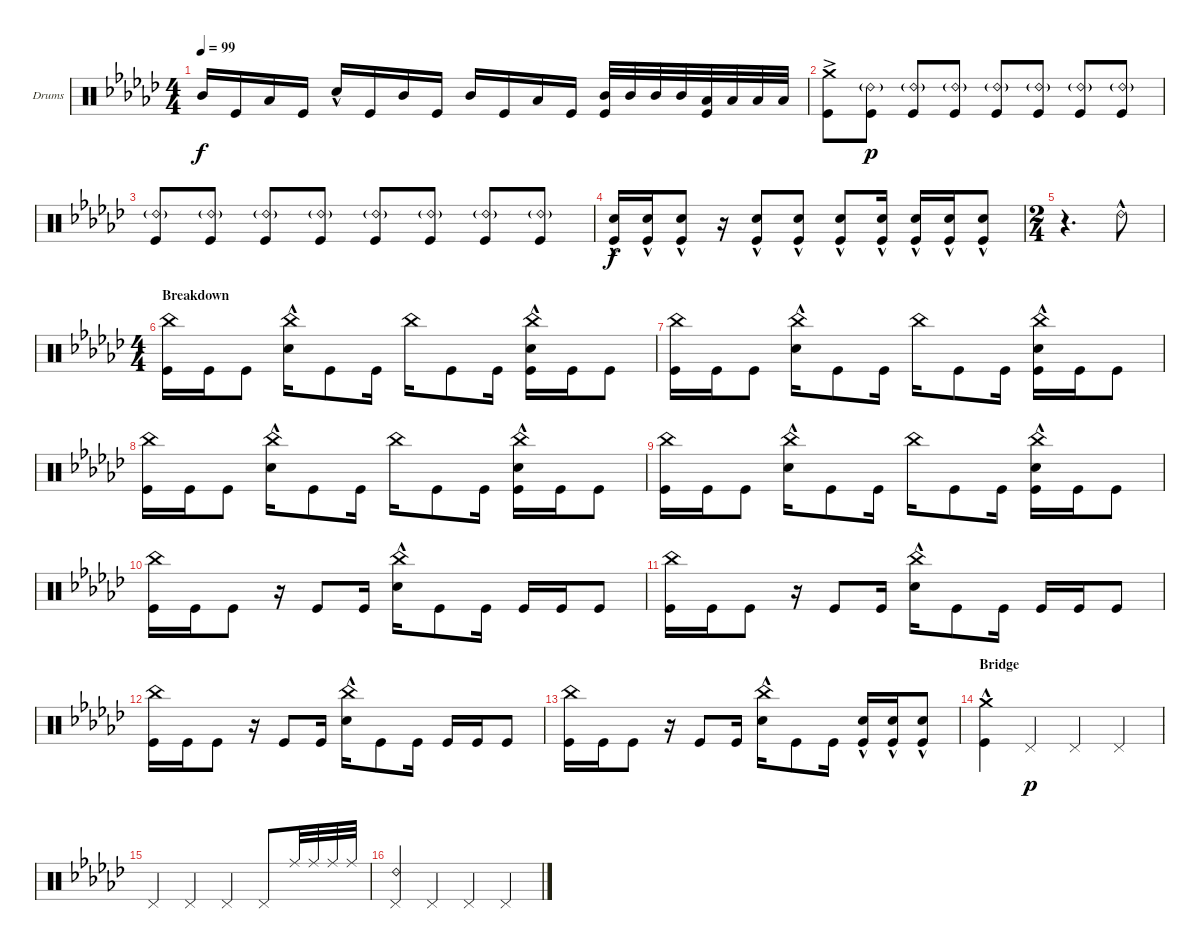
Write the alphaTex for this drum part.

\bracketExtendMode groupsimilarinstruments
\firstSystemTrackNameOrientation horizontal
\otherSystemsTrackNameOrientation horizontal
\track ("Drumkit" "Drums") {instrument percussion}
\staff {score}
\articulation defaults
\ts (4 4)
\tempo 99
\clef neutral
\ks ebminor "Mid Tom (hit)".16{dy f} "Kick (hit)".16 "Low Tom (hit)".16 "Kick (hit)".16 "Snare (hit) 2"{hac}.16 "Kick (hit)".16 "Mid Tom (hit)".16 "Kick (hit)".16 "Mid Tom (hit)".16 "Kick (hit)".16 "Low Tom (hit)".16 "Kick (hit)".16
("Mid Tom (hit)" "Kick (hit)").32 "Mid Tom (hit)".32 "Mid Tom (hit)".32 "Mid Tom (hit)".32 ("Low Tom (hit)" "Kick (hit)").32 "Low Tom (hit)".32 "Low Tom (hit)".32 "Low Tom (hit)".32 |
("Kick (hit)" "Crash medium (hit)"{ac}).8 ("Kick (hit)" "Ride (bell) 2"{g}).8{dy p} ("Kick (hit)" "Ride (bell) 2"{g}).8 ("Kick (hit)" "Ride (bell) 2"{g}).8 ("Kick (hit)" "Ride (bell) 2"{g}).8 ("Kick (hit)" "Ride (bell) 2"{g}).8 ("Kick (hit)" "Ride (bell) 2"{g}).8 ("Kick (hit)" "Ride (bell) 2"{g}).8 |
("Kick (hit)" "Ride (bell) 2"{g}).8 ("Kick (hit)" "Ride (bell) 2"{g}).8 ("Kick (hit)" "Ride (bell) 2"{g}).8 ("Kick (hit)" "Ride (bell) 2"{g}).8 ("Kick (hit)" "Ride (bell) 2"{g}).8 ("Kick (hit)" "Ride (bell) 2"{g}).8 ("Kick (hit)" "Ride (bell) 2"{g}).8 ("Kick (hit)" "Ride (bell) 2"{g}).8 |
("Kick (hit)" "Snare (hit) 2"{hac}).16{dy f} ("Kick (hit)" "Snare (hit) 2"{hac}).16 ("Kick (hit)" "Snare (hit) 2"{hac}).8 r.16 ("Kick (hit)" "Snare (hit) 2"{hac}).8 ("Kick (hit)" "Snare (hit) 2"{hac}).8 ("Kick (hit)" "Snare (hit) 2"{hac}).8 ("Kick (hit)" "Snare (hit) 2"{hac}).16 ("Kick (hit)" "Snare (hit) 2"{hac}).16 ("Kick (hit)" "Snare (hit) 2"{hac}).16 ("Kick (hit)" "Snare (hit) 2"{hac}).8 |
\ts (2 4)
r.4{d} "Ride (bell) 2"{hac}.8 |
\ts (4 4)
\section ("" "Breakdown")
("Kick (hit)" "China (hit)").16 "Kick (hit)".16 "Kick (hit)".8 ("China (hit)" "Snare (hit) 2"{hac}).16 "Kick (hit)".8 "Kick (hit)".16 "China (hit)".16 "Kick (hit)".8 "Kick (hit)".16 ("Kick (hit)" "China (hit)" "Snare (hit) 2"{hac}).16 "Kick (hit)".16 "Kick (hit)".8 |
("Kick (hit)" "China (hit)").16 "Kick (hit)".16 "Kick (hit)".8 ("China (hit)" "Snare (hit) 2"{hac}).16 "Kick (hit)".8 "Kick (hit)".16 "China (hit)".16 "Kick (hit)".8 "Kick (hit)".16 ("Kick (hit)" "China (hit)" "Snare (hit) 2"{hac}).16 "Kick (hit)".16 "Kick (hit)".8 |
("Kick (hit)" "China (hit)").16 "Kick (hit)".16 "Kick (hit)".8 ("China (hit)" "Snare (hit) 2"{hac}).16 "Kick (hit)".8 "Kick (hit)".16 "China (hit)".16 "Kick (hit)".8 "Kick (hit)".16 ("Kick (hit)" "China (hit)" "Snare (hit) 2"{hac}).16 "Kick (hit)".16 "Kick (hit)".8 |
("Kick (hit)" "China (hit)").16 "Kick (hit)".16 "Kick (hit)".8 ("China (hit)" "Snare (hit) 2"{hac}).16 "Kick (hit)".8 "Kick (hit)".16 "China (hit)".16 "Kick (hit)".8 "Kick (hit)".16 ("Kick (hit)" "China (hit)" "Snare (hit) 2"{hac}).16 "Kick (hit)".16 "Kick (hit)".8 |
("Kick (hit)" "China (hit)").16 "Kick (hit)".16 "Kick (hit)".8 r.16 "Kick (hit)".8 "Kick (hit)".16 ("China (hit)" "Snare (hit) 2"{hac}).16 "Kick (hit)".8 "Kick (hit)".16 "Kick (hit)".16 "Kick (hit)".16 "Kick (hit)".8 |
("Kick (hit)" "China (hit)").16 "Kick (hit)".16 "Kick (hit)".8 r.16 "Kick (hit)".8 "Kick (hit)".16 ("China (hit)" "Snare (hit) 2"{hac}).16 "Kick (hit)".8 "Kick (hit)".16 "Kick (hit)".16 "Kick (hit)".16 "Kick (hit)".8 |
("Kick (hit)" "China (hit)").16 "Kick (hit)".16 "Kick (hit)".8 r.16 "Kick (hit)".8 "Kick (hit)".16 ("China (hit)" "Snare (hit) 2"{hac}).16 "Kick (hit)".8 "Kick (hit)".16 "Kick (hit)".16 "Kick (hit)".16 "Kick (hit)".8 |
("Kick (hit)" "China (hit)").16 "Kick (hit)".16 "Kick (hit)".8 r.16 "Kick (hit)".8 "Kick (hit)".16 ("China (hit)" "Snare (hit) 2"{hac}).16 "Kick (hit)".8 "Kick (hit)".16 ("Kick (hit)" "Snare (hit) 2"{hac}).16 ("Kick (hit)" "Snare (hit) 2"{hac}).16 ("Kick (hit)" "Snare (hit) 2"{hac}).8 |
\section ("" "Bridge")
("Kick (hit)" "Crash medium (hit)"{hac}).4 "Pedal Hi-Hat (hit)".4{dy p} "Pedal Hi-Hat (hit)".4 "Pedal Hi-Hat (hit)".4 |
"Pedal Hi-Hat (hit)".4 "Pedal Hi-Hat (hit)".4 "Pedal Hi-Hat (hit)".4 "Pedal Hi-Hat (hit)".8 "Ride (middle)".32 "Ride (middle)".32 "Ride (middle)".32 "Ride (middle)".32 |
("Ride (bell) 2" "Pedal Hi-Hat (hit)").4 "Pedal Hi-Hat (hit)".4 "Pedal Hi-Hat (hit)".4 "Pedal Hi-Hat (hit)".4
